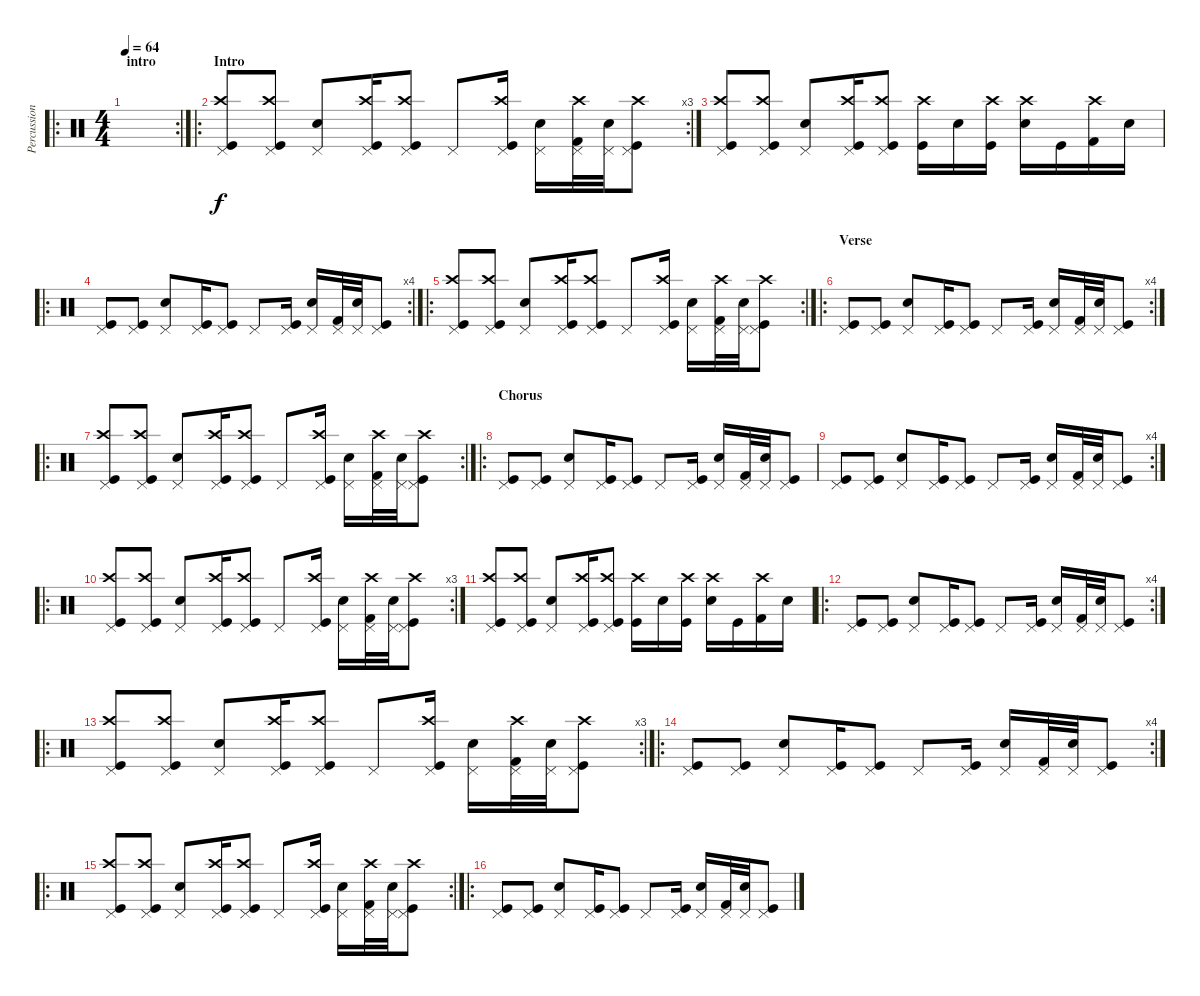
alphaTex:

\track ("Percussion" "Percussion") {instrument percussion}
\staff {score}
\articulation defaults
\ro
\rc 2
\ts (4 4)
\section ("" "intro")
\tempo 64
\clef neutral
\ks c
|
\ro
\rc 3
\section ("" "Intro")
("Kick (hit)" "Crash high (hit)" "Pedal Hi-Hat (hit)").8 ("Kick (hit)" "Crash high (hit)" "Pedal Hi-Hat (hit)").8 ("Snare (hit) 2" "Pedal Hi-Hat (hit)").8 ("Kick (hit)" "Crash high (hit)" "Pedal Hi-Hat (hit)").16 ("Kick (hit)" "Crash high (hit)" "Pedal Hi-Hat (hit)").8 "Pedal Hi-Hat (hit)".8 ("Kick (hit)" "Crash high (hit)" "Pedal Hi-Hat (hit)").16 ("Snare (hit) 2" "Pedal Hi-Hat (hit)").16 ("Kick (hit) 2" "Crash high (hit)" "Pedal Hi-Hat (hit)").32 ("Snare (hit) 2" "Pedal Hi-Hat (hit)").32 ("Kick (hit)" "Crash high (hit)" "Pedal Hi-Hat (hit)").8 |
("Kick (hit)" "Crash high (hit)" "Pedal Hi-Hat (hit)").8 ("Kick (hit)" "Crash high (hit)" "Pedal Hi-Hat (hit)").8 ("Snare (hit) 2" "Pedal Hi-Hat (hit)").8 ("Kick (hit)" "Crash high (hit)" "Pedal Hi-Hat (hit)").16 ("Kick (hit)" "Crash high (hit)" "Pedal Hi-Hat (hit)").8 ("Kick (hit)" "Crash high (hit)").16 "Snare (hit) 2".16 ("Kick (hit)" "Crash high (hit)").16 ("Snare (hit) 2" "Crash high (hit)").16 "Kick (hit)".16 ("Kick (hit) 2" "Crash high (hit)").16 "Snare (hit) 2".16 |
\ro
\rc 4
("Kick (hit)" "Pedal Hi-Hat (hit)").8 ("Kick (hit)" "Pedal Hi-Hat (hit)").8 ("Snare (hit) 2" "Pedal Hi-Hat (hit)").8 ("Kick (hit)" "Pedal Hi-Hat (hit)").16 ("Kick (hit)" "Pedal Hi-Hat (hit)").8 "Pedal Hi-Hat (hit)".8 ("Kick (hit)" "Pedal Hi-Hat (hit)").16 ("Snare (hit) 2" "Pedal Hi-Hat (hit)").16 ("Kick (hit) 2" "Pedal Hi-Hat (hit)").32 ("Snare (hit) 2" "Pedal Hi-Hat (hit)").32 ("Kick (hit)" "Pedal Hi-Hat (hit)").8 |
\ro
\rc 2
("Kick (hit)" "Crash high (hit)" "Pedal Hi-Hat (hit)").8 ("Kick (hit)" "Crash high (hit)" "Pedal Hi-Hat (hit)").8 ("Snare (hit) 2" "Pedal Hi-Hat (hit)").8 ("Kick (hit)" "Crash high (hit)" "Pedal Hi-Hat (hit)").16 ("Kick (hit)" "Crash high (hit)" "Pedal Hi-Hat (hit)").8 "Pedal Hi-Hat (hit)".8 ("Kick (hit)" "Crash high (hit)" "Pedal Hi-Hat (hit)").16 ("Snare (hit) 2" "Pedal Hi-Hat (hit)").16 ("Kick (hit) 2" "Crash high (hit)" "Pedal Hi-Hat (hit)").32 ("Snare (hit) 2" "Pedal Hi-Hat (hit)").32 ("Kick (hit)" "Crash high (hit)" "Pedal Hi-Hat (hit)").8 |
\ro
\rc 4
\section ("" "Verse")
("Kick (hit)" "Pedal Hi-Hat (hit)").8 ("Kick (hit)" "Pedal Hi-Hat (hit)").8 ("Snare (hit) 2" "Pedal Hi-Hat (hit)").8 ("Kick (hit)" "Pedal Hi-Hat (hit)").16 ("Kick (hit)" "Pedal Hi-Hat (hit)").8 "Pedal Hi-Hat (hit)".8 ("Kick (hit)" "Pedal Hi-Hat (hit)").16 ("Snare (hit) 2" "Pedal Hi-Hat (hit)").16 ("Kick (hit) 2" "Pedal Hi-Hat (hit)").32 ("Snare (hit) 2" "Pedal Hi-Hat (hit)").32 ("Kick (hit)" "Pedal Hi-Hat (hit)").8 |
\ro
\rc 2
("Kick (hit)" "Crash high (hit)" "Pedal Hi-Hat (hit)").8 ("Kick (hit)" "Crash high (hit)" "Pedal Hi-Hat (hit)").8 ("Snare (hit) 2" "Pedal Hi-Hat (hit)").8 ("Kick (hit)" "Crash high (hit)" "Pedal Hi-Hat (hit)").16 ("Kick (hit)" "Crash high (hit)" "Pedal Hi-Hat (hit)").8 "Pedal Hi-Hat (hit)".8 ("Kick (hit)" "Crash high (hit)" "Pedal Hi-Hat (hit)").16 ("Snare (hit) 2" "Pedal Hi-Hat (hit)").16 ("Kick (hit) 2" "Crash high (hit)" "Pedal Hi-Hat (hit)").32 ("Snare (hit) 2" "Pedal Hi-Hat (hit)").32 ("Kick (hit)" "Crash high (hit)" "Pedal Hi-Hat (hit)").8 |
\ro
\section ("" "Chorus")
("Kick (hit)" "Pedal Hi-Hat (hit)").8 ("Kick (hit)" "Pedal Hi-Hat (hit)").8 ("Snare (hit) 2" "Pedal Hi-Hat (hit)").8 ("Kick (hit)" "Pedal Hi-Hat (hit)").16 ("Kick (hit)" "Pedal Hi-Hat (hit)").8 "Pedal Hi-Hat (hit)".8 ("Kick (hit)" "Pedal Hi-Hat (hit)").16 ("Snare (hit) 2" "Pedal Hi-Hat (hit)").16 ("Kick (hit) 2" "Pedal Hi-Hat (hit)").32 ("Snare (hit) 2" "Pedal Hi-Hat (hit)").32 ("Kick (hit)" "Pedal Hi-Hat (hit)").8 |
\rc 4
("Kick (hit)" "Pedal Hi-Hat (hit)").8 ("Kick (hit)" "Pedal Hi-Hat (hit)").8 ("Snare (hit) 2" "Pedal Hi-Hat (hit)").8 ("Kick (hit)" "Pedal Hi-Hat (hit)").16 ("Kick (hit)" "Pedal Hi-Hat (hit)").8 "Pedal Hi-Hat (hit)".8 ("Kick (hit)" "Pedal Hi-Hat (hit)").16 ("Snare (hit) 2" "Pedal Hi-Hat (hit)").16 ("Kick (hit) 2" "Pedal Hi-Hat (hit)").32 ("Snare (hit) 2" "Pedal Hi-Hat (hit)").32 ("Kick (hit)" "Pedal Hi-Hat (hit)").8 |
\ro
\rc 3
("Kick (hit)" "Crash high (hit)" "Pedal Hi-Hat (hit)").8 ("Kick (hit)" "Crash high (hit)" "Pedal Hi-Hat (hit)").8 ("Snare (hit) 2" "Pedal Hi-Hat (hit)").8 ("Kick (hit)" "Crash high (hit)" "Pedal Hi-Hat (hit)").16 ("Kick (hit)" "Crash high (hit)" "Pedal Hi-Hat (hit)").8 "Pedal Hi-Hat (hit)".8 ("Kick (hit)" "Crash high (hit)" "Pedal Hi-Hat (hit)").16 ("Snare (hit) 2" "Pedal Hi-Hat (hit)").16 ("Kick (hit) 2" "Crash high (hit)" "Pedal Hi-Hat (hit)").32 ("Snare (hit) 2" "Pedal Hi-Hat (hit)").32 ("Kick (hit)" "Crash high (hit)" "Pedal Hi-Hat (hit)").8 |
("Kick (hit)" "Crash high (hit)" "Pedal Hi-Hat (hit)").8 ("Kick (hit)" "Crash high (hit)" "Pedal Hi-Hat (hit)").8 ("Snare (hit) 2" "Pedal Hi-Hat (hit)").8 ("Kick (hit)" "Crash high (hit)" "Pedal Hi-Hat (hit)").16 ("Kick (hit)" "Crash high (hit)" "Pedal Hi-Hat (hit)").8 ("Kick (hit)" "Crash high (hit)").16 "Snare (hit) 2".16 ("Kick (hit)" "Crash high (hit)").16 ("Snare (hit) 2" "Crash high (hit)").16 "Kick (hit)".16 ("Kick (hit) 2" "Crash high (hit)").16 "Snare (hit) 2".16 |
\ro
\rc 4
("Kick (hit)" "Pedal Hi-Hat (hit)").8 ("Kick (hit)" "Pedal Hi-Hat (hit)").8 ("Snare (hit) 2" "Pedal Hi-Hat (hit)").8 ("Kick (hit)" "Pedal Hi-Hat (hit)").16 ("Kick (hit)" "Pedal Hi-Hat (hit)").8 "Pedal Hi-Hat (hit)".8 ("Kick (hit)" "Pedal Hi-Hat (hit)").16 ("Snare (hit) 2" "Pedal Hi-Hat (hit)").16 ("Kick (hit) 2" "Pedal Hi-Hat (hit)").32 ("Snare (hit) 2" "Pedal Hi-Hat (hit)").32 ("Kick (hit)" "Pedal Hi-Hat (hit)").8 |
\ro
\rc 3
("Kick (hit)" "Crash high (hit)" "Pedal Hi-Hat (hit)").8 ("Kick (hit)" "Crash high (hit)" "Pedal Hi-Hat (hit)").8 ("Snare (hit) 2" "Pedal Hi-Hat (hit)").8 ("Kick (hit)" "Crash high (hit)" "Pedal Hi-Hat (hit)").16 ("Kick (hit)" "Crash high (hit)" "Pedal Hi-Hat (hit)").8 "Pedal Hi-Hat (hit)".8 ("Kick (hit)" "Crash high (hit)" "Pedal Hi-Hat (hit)").16 ("Snare (hit) 2" "Pedal Hi-Hat (hit)").16 ("Kick (hit) 2" "Crash high (hit)" "Pedal Hi-Hat (hit)").32 ("Snare (hit) 2" "Pedal Hi-Hat (hit)").32 ("Kick (hit)" "Crash high (hit)" "Pedal Hi-Hat (hit)").8 |
\ro
\rc 4
("Kick (hit)" "Pedal Hi-Hat (hit)").8 ("Kick (hit)" "Pedal Hi-Hat (hit)").8 ("Snare (hit) 2" "Pedal Hi-Hat (hit)").8 ("Kick (hit)" "Pedal Hi-Hat (hit)").16 ("Kick (hit)" "Pedal Hi-Hat (hit)").8 "Pedal Hi-Hat (hit)".8 ("Kick (hit)" "Pedal Hi-Hat (hit)").16 ("Snare (hit) 2" "Pedal Hi-Hat (hit)").16 ("Kick (hit) 2" "Pedal Hi-Hat (hit)").32 ("Snare (hit) 2" "Pedal Hi-Hat (hit)").32 ("Kick (hit)" "Pedal Hi-Hat (hit)").8 |
\ro
\rc 2
("Kick (hit)" "Crash high (hit)" "Pedal Hi-Hat (hit)").8 ("Kick (hit)" "Crash high (hit)" "Pedal Hi-Hat (hit)").8 ("Snare (hit) 2" "Pedal Hi-Hat (hit)").8 ("Kick (hit)" "Crash high (hit)" "Pedal Hi-Hat (hit)").16 ("Kick (hit)" "Crash high (hit)" "Pedal Hi-Hat (hit)").8 "Pedal Hi-Hat (hit)".8 ("Kick (hit)" "Crash high (hit)" "Pedal Hi-Hat (hit)").16 ("Snare (hit) 2" "Pedal Hi-Hat (hit)").16 ("Kick (hit) 2" "Crash high (hit)" "Pedal Hi-Hat (hit)").32 ("Snare (hit) 2" "Pedal Hi-Hat (hit)").32 ("Kick (hit)" "Crash high (hit)" "Pedal Hi-Hat (hit)").8 |
\ro
("Kick (hit)" "Pedal Hi-Hat (hit)").8 ("Kick (hit)" "Pedal Hi-Hat (hit)").8 ("Snare (hit) 2" "Pedal Hi-Hat (hit)").8 ("Kick (hit)" "Pedal Hi-Hat (hit)").16 ("Kick (hit)" "Pedal Hi-Hat (hit)").8 "Pedal Hi-Hat (hit)".8 ("Kick (hit)" "Pedal Hi-Hat (hit)").16 ("Snare (hit) 2" "Pedal Hi-Hat (hit)").16 ("Kick (hit) 2" "Pedal Hi-Hat (hit)").32 ("Snare (hit) 2" "Pedal Hi-Hat (hit)").32 ("Kick (hit)" "Pedal Hi-Hat (hit)").8
